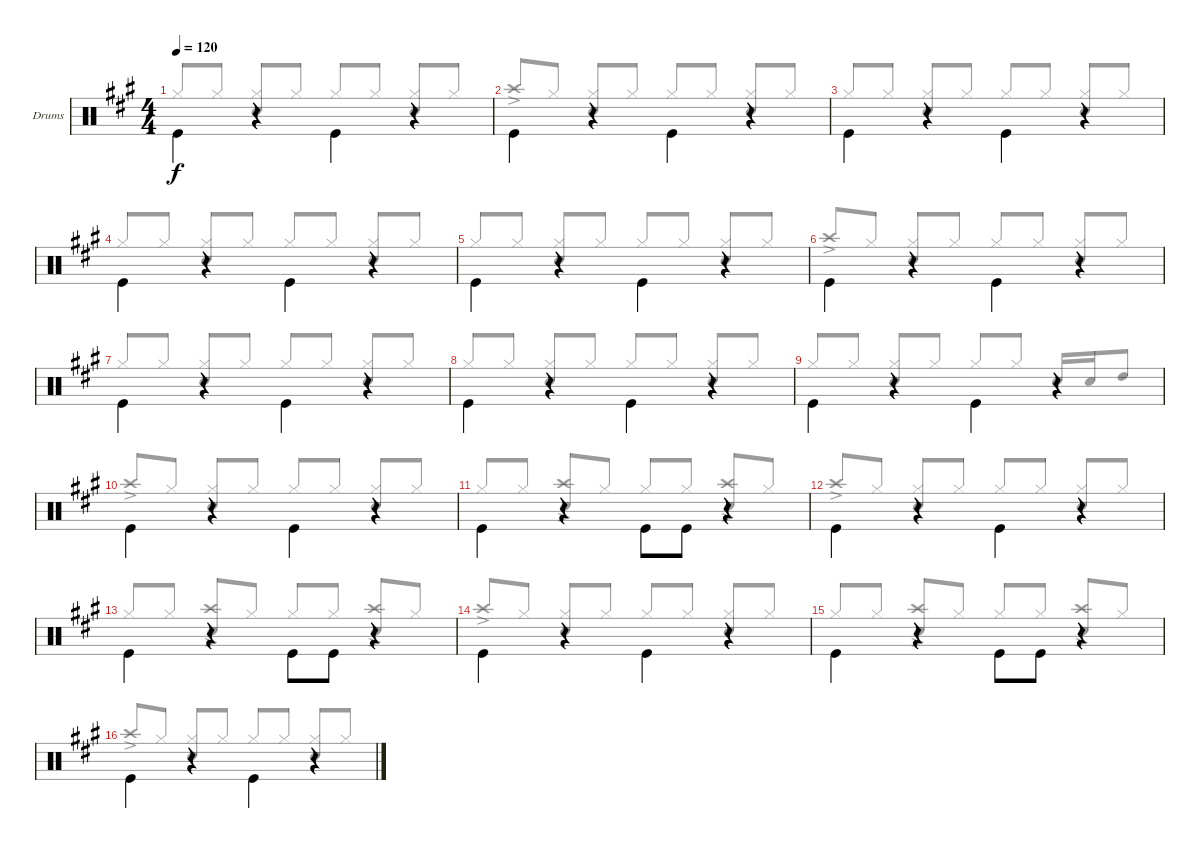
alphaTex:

\bracketExtendMode groupsimilarinstruments
\firstSystemTrackNameOrientation horizontal
\otherSystemsTrackNameOrientation horizontal
\track ("Drum" "Drums") {instrument percussion}
\staff {score}
\articulation defaults
\voice
\ts (4 4)
\tempo 120
\clef neutral
\scale
1.05801
\ks a "Kick (hit)".4{dy f beam invert}
r.4 "Kick (hit)".4{beam invert} r.4 |
\scale
0.941992 "Kick (hit)".4{beam invert} r.4 "Kick (hit)".4{beam invert} r.4 |
\scale
1.05801 "Kick (hit)".4{beam invert} r.4 "Kick (hit)".4{beam invert} r.4 |
\scale
0.941992 "Kick (hit)".4{beam invert} r.4 "Kick (hit)".4{beam invert} r.4 |
\scale
1.05801 "Kick (hit)".4{beam invert} r.4 "Kick (hit)".4{beam invert} r.4 |
\scale
0.941992 "Kick (hit)".4{beam invert} r.4 "Kick (hit)".4{beam invert} r.4 |
\scale
1.05801 "Kick (hit)".4{beam invert} r.4 "Kick (hit)".4{beam invert} r.4 |
\scale
0.941992 "Kick (hit)".4{beam invert} r.4 "Kick (hit)".4{beam invert} r.4 |
\scale
1.05801 "Kick (hit)".4{beam invert} r.4 "Kick (hit)".4{beam invert} r.4 |
\scale
0.941992 "Kick (hit)".4{beam invert} r.4 "Kick (hit)".4{beam invert} r.4 |
\scale
1.05801 "Kick (hit)".4{beam invert} r.4 "Kick (hit)".8{beam invert} "Kick (hit)".8 r.4 |
\scale
0.941992 "Kick (hit)".4{beam invert} r.4 "Kick (hit)".4{beam invert} r.4 |
\scale
1.05801 "Kick (hit)".4{beam invert} r.4 "Kick (hit)".8{beam invert} "Kick (hit)".8 r.4 |
\scale
0.941992 "Kick (hit)".4{beam invert} r.4 "Kick (hit)".4{beam invert} r.4 |
\scale
1.05801 "Kick (hit)".4{beam invert} r.4 "Kick (hit)".8{beam invert} "Kick (hit)".8 r.4 |
\scale
0.941992 "Kick (hit)".4{beam invert} r.4 "Kick (hit)".4{beam invert} r.4
\voice
\clef neutral
\ottava regular
\simile none
\scale
1.05801
\ks a "Hi-Hat (closed)".8{dy f beam invert} "Hi-Hat (closed)".8
("Hi-Hat (closed)" "Snare (hit) 2").8{beam invert} "Hi-Hat (closed)".8 "Hi-Hat (closed)".8{beam invert} "Hi-Hat (closed)".8 ("Hi-Hat (closed)" "Snare (hit) 2").8{beam invert} "Hi-Hat (closed)".8 |
\scale
0.941992 "Crash high (hit)"{ac}.8{beam invert} "Hi-Hat (closed)".8 ("Hi-Hat (closed)" "Snare (hit) 2").8{beam invert} "Hi-Hat (closed)".8 "Hi-Hat (closed)".8{beam invert} "Hi-Hat (closed)".8 ("Hi-Hat (closed)" "Snare (hit) 2").8{beam invert} "Hi-Hat (closed)".8 |
\scale
1.05801 "Hi-Hat (closed)".8{beam invert} "Hi-Hat (closed)".8 ("Hi-Hat (closed)" "Snare (hit) 2").8{beam invert} "Hi-Hat (closed)".8 "Hi-Hat (closed)".8{beam invert} "Hi-Hat (closed)".8 ("Hi-Hat (closed)" "Snare (hit) 2").8{beam invert} "Hi-Hat (closed)".8 |
\scale
0.941992 "Hi-Hat (closed)".8{beam invert} "Hi-Hat (closed)".8 ("Hi-Hat (closed)" "Snare (hit) 2").8{beam invert} "Hi-Hat (closed)".8 "Hi-Hat (closed)".8{beam invert} "Hi-Hat (closed)".8 ("Hi-Hat (closed)" "Snare (hit) 2").8{beam invert} "Hi-Hat (closed)".8 |
\scale
1.05801 "Hi-Hat (closed)".8{beam invert} "Hi-Hat (closed)".8 ("Hi-Hat (closed)" "Snare (hit) 2").8{beam invert} "Hi-Hat (closed)".8 "Hi-Hat (closed)".8{beam invert} "Hi-Hat (closed)".8 ("Hi-Hat (closed)" "Snare (hit) 2").8{beam invert} "Hi-Hat (closed)".8 |
\scale
0.941992 "Crash high (hit)"{ac}.8{beam invert} "Hi-Hat (closed)".8 ("Hi-Hat (closed)" "Snare (hit) 2").8{beam invert} "Hi-Hat (closed)".8 "Hi-Hat (closed)".8{beam invert} "Hi-Hat (closed)".8 ("Hi-Hat (closed)" "Snare (hit) 2").8{beam invert} "Hi-Hat (closed)".8 |
\scale
1.05801 "Hi-Hat (closed)".8{beam invert} "Hi-Hat (closed)".8 ("Hi-Hat (closed)" "Snare (hit) 2").8{beam invert} "Hi-Hat (closed)".8 "Hi-Hat (closed)".8{beam invert} "Hi-Hat (closed)".8 ("Hi-Hat (closed)" "Snare (hit) 2").8{beam invert} "Hi-Hat (closed)".8 |
\scale
0.941992 "Hi-Hat (closed)".8{beam invert} "Hi-Hat (closed)".8 ("Hi-Hat (closed)" "Snare (hit) 2").8{beam invert} "Hi-Hat (closed)".8 "Hi-Hat (closed)".8{beam invert} "Hi-Hat (closed)".8 ("Hi-Hat (closed)" "Snare (hit) 2").8{beam invert} "Hi-Hat (closed)".8 |
\scale
1.05801 "Hi-Hat (closed)".8{beam invert} "Hi-Hat (closed)".8 ("Hi-Hat (closed)" "Snare (hit) 2").8{beam invert} "Hi-Hat (closed)".8 "Hi-Hat (closed)".8{beam invert} "Hi-Hat (closed)".8 "Snare (hit) 2".16{beam invert} "Snare (hit) 2".16 "High Tom (hit)".8 |
\scale
0.941992 "Crash high (hit)"{ac}.8{beam invert} "Hi-Hat (closed)".8 ("Hi-Hat (closed)" "Snare (hit) 2").8{beam invert} "Hi-Hat (closed)".8 "Hi-Hat (closed)".8{beam invert} "Hi-Hat (closed)".8 ("Hi-Hat (closed)" "Snare (hit) 2").8{beam invert} "Hi-Hat (closed)".8 |
\scale
1.05801 "Hi-Hat (closed)".8{beam invert} "Hi-Hat (closed)".8 ("Snare (hit) 2" "Crash high (hit)"{ac}).8{beam invert} "Hi-Hat (closed)".8 "Hi-Hat (closed)".8{beam invert} "Hi-Hat (closed)".8 ("Snare (hit) 2" "Crash high (hit)"{ac}).8{beam invert} "Hi-Hat (closed)".8 |
\scale
0.941992 "Crash high (hit)"{ac}.8{beam invert} "Hi-Hat (closed)".8 ("Hi-Hat (closed)" "Snare (hit) 2").8{beam invert} "Hi-Hat (closed)".8 "Hi-Hat (closed)".8{beam invert} "Hi-Hat (closed)".8 ("Hi-Hat (closed)" "Snare (hit) 2").8{beam invert} "Hi-Hat (closed)".8 |
\scale
1.05801 "Hi-Hat (closed)".8{beam invert} "Hi-Hat (closed)".8 ("Snare (hit) 2" "Crash high (hit)"{ac}).8{beam invert} "Hi-Hat (closed)".8 "Hi-Hat (closed)".8{beam invert} "Hi-Hat (closed)".8 ("Snare (hit) 2" "Crash high (hit)"{ac}).8{beam invert} "Hi-Hat (closed)".8 |
\scale
0.941992 "Crash high (hit)"{ac}.8{beam invert} "Hi-Hat (closed)".8 ("Hi-Hat (closed)" "Snare (hit) 2").8{beam invert} "Hi-Hat (closed)".8 "Hi-Hat (closed)".8{beam invert} "Hi-Hat (closed)".8 ("Hi-Hat (closed)" "Snare (hit) 2").8{beam invert} "Hi-Hat (closed)".8 |
\scale
1.05801 "Hi-Hat (closed)".8{beam invert} "Hi-Hat (closed)".8 ("Snare (hit) 2" "Crash high (hit)"{ac}).8{beam invert} "Hi-Hat (closed)".8 "Hi-Hat (closed)".8{beam invert} "Hi-Hat (closed)".8 ("Snare (hit) 2" "Crash high (hit)"{ac}).8{beam invert} "Hi-Hat (closed)".8 |
\scale
0.941992 "Crash high (hit)"{ac}.8{beam invert} "Hi-Hat (closed)".8 ("Hi-Hat (closed)" "Snare (hit) 2").8{beam invert} "Hi-Hat (closed)".8 "Hi-Hat (closed)".8{beam invert} "Hi-Hat (closed)".8 ("Hi-Hat (closed)" "Snare (hit) 2").8{beam invert} "Hi-Hat (closed)".8
